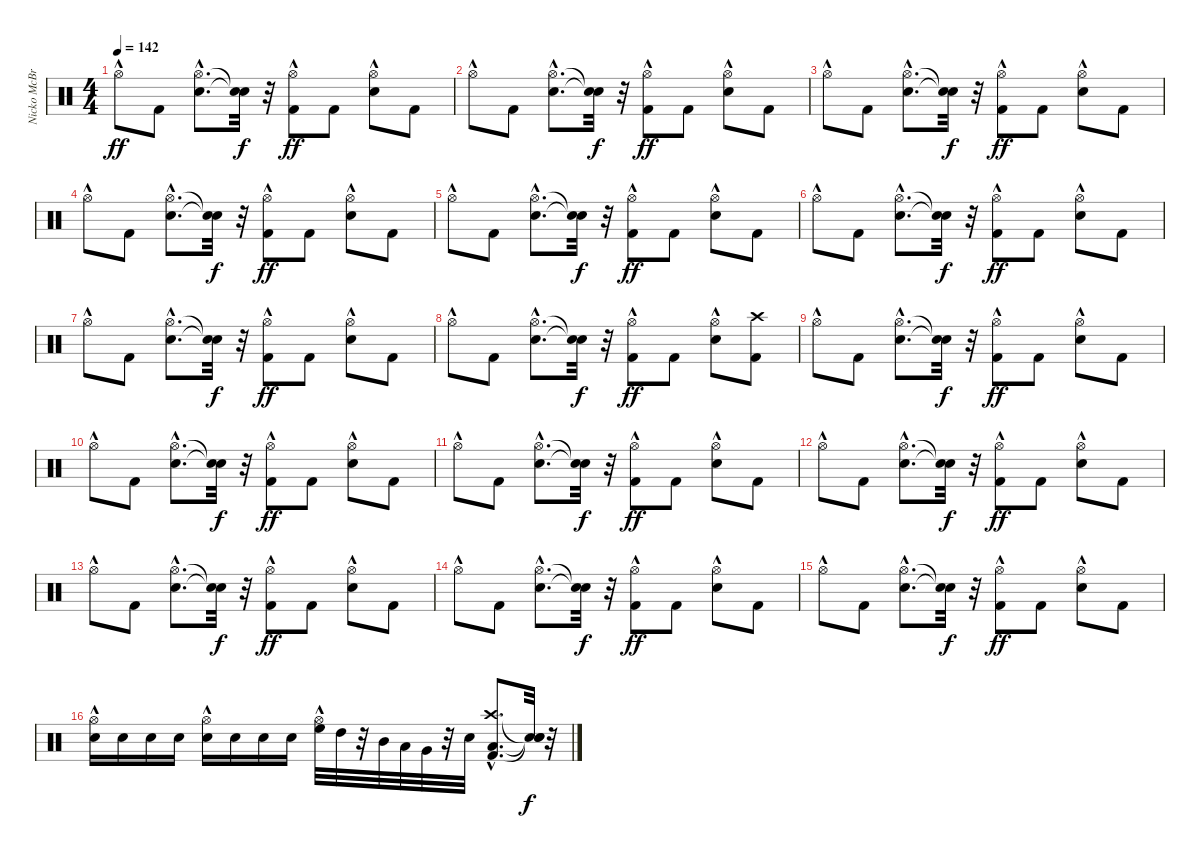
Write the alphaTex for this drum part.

\track ("Nicko McBrain" "Nicko McBr") {instrument percussion}
\staff {score}
\articulation defaults
\ts (4 4)
\tempo 142
\clef neutral
\ks c "Hi-Hat (open)"{hac}.8{dy ff} "Kick (hit) 2".8
("Snare (hit) 2"{hac} "Hi-Hat (open)"{hac}).8{d} ("Snare (hit)"{t} "Snare (hit)"{t}).32{dy f} r.32 ("Kick (hit) 2" "Hi-Hat (open)"{hac}).8{dy ff} "Kick (hit) 2".8 ("Snare (hit) 2" "Hi-Hat (open)"{hac}).8 "Kick (hit) 2".8 |
"Hi-Hat (open)"{hac}.8 "Kick (hit) 2".8 ("Snare (hit) 2"{hac} "Hi-Hat (open)"{hac}).8{d} ("Snare (hit)"{t} "Snare (hit)"{t}).32{dy f} r.32 ("Kick (hit) 2" "Hi-Hat (open)"{hac}).8{dy ff} "Kick (hit) 2".8 ("Snare (hit) 2" "Hi-Hat (open)"{hac}).8 "Kick (hit) 2".8 |
"Hi-Hat (open)"{hac}.8 "Kick (hit) 2".8 ("Snare (hit) 2"{hac} "Hi-Hat (open)"{hac}).8{d} ("Snare (hit)"{t} "Snare (hit)"{t}).32{dy f} r.32 ("Kick (hit) 2" "Hi-Hat (open)"{hac}).8{dy ff} "Kick (hit) 2".8 ("Snare (hit) 2" "Hi-Hat (open)"{hac}).8 "Kick (hit) 2".8 |
"Hi-Hat (open)"{hac}.8 "Kick (hit) 2".8 ("Snare (hit) 2"{hac} "Hi-Hat (open)"{hac}).8{d} ("Snare (hit)"{t} "Snare (hit)"{t}).32{dy f} r.32 ("Kick (hit) 2" "Hi-Hat (open)"{hac}).8{dy ff} "Kick (hit) 2".8 ("Snare (hit) 2" "Hi-Hat (open)"{hac}).8 "Kick (hit) 2".8 |
"Hi-Hat (open)"{hac}.8 "Kick (hit) 2".8 ("Snare (hit) 2"{hac} "Hi-Hat (open)"{hac}).8{d} ("Snare (hit)"{t} "Snare (hit)"{t}).32{dy f} r.32 ("Kick (hit) 2" "Hi-Hat (open)"{hac}).8{dy ff} "Kick (hit) 2".8 ("Snare (hit) 2" "Hi-Hat (open)"{hac}).8 "Kick (hit) 2".8 |
"Hi-Hat (open)"{hac}.8 "Kick (hit) 2".8 ("Snare (hit) 2"{hac} "Hi-Hat (open)"{hac}).8{d} ("Snare (hit)"{t} "Snare (hit)"{t}).32{dy f} r.32 ("Kick (hit) 2" "Hi-Hat (open)"{hac}).8{dy ff} "Kick (hit) 2".8 ("Snare (hit) 2" "Hi-Hat (open)"{hac}).8 "Kick (hit) 2".8 |
"Hi-Hat (open)"{hac}.8 "Kick (hit) 2".8 ("Snare (hit) 2"{hac} "Hi-Hat (open)"{hac}).8{d} ("Snare (hit)"{t} "Snare (hit)"{t}).32{dy f} r.32 ("Kick (hit) 2" "Hi-Hat (open)"{hac}).8{dy ff} "Kick (hit) 2".8 ("Snare (hit) 2" "Hi-Hat (open)"{hac}).8 "Kick (hit) 2".8 |
"Hi-Hat (open)"{hac}.8 "Kick (hit) 2".8 ("Snare (hit) 2"{hac} "Hi-Hat (open)"{hac}).8{d} ("Snare (hit)"{t} "Snare (hit)"{t}).32{dy f} r.32 ("Kick (hit) 2" "Hi-Hat (open)"{hac}).8{dy ff} "Kick (hit) 2".8 ("Snare (hit) 2" "Hi-Hat (open)"{hac}).8 ("Kick (hit) 2" "Crash high (hit)").8 |
"Hi-Hat (open)"{hac}.8 "Kick (hit) 2".8 ("Snare (hit) 2"{hac} "Hi-Hat (open)"{hac}).8{d} ("Snare (hit)"{t} "Snare (hit)"{t}).32{dy f} r.32 ("Kick (hit) 2" "Hi-Hat (open)"{hac}).8{dy ff} "Kick (hit) 2".8 ("Snare (hit) 2" "Hi-Hat (open)"{hac}).8 "Kick (hit) 2".8 |
"Hi-Hat (open)"{hac}.8 "Kick (hit) 2".8 ("Snare (hit) 2"{hac} "Hi-Hat (open)"{hac}).8{d} ("Snare (hit)"{t} "Snare (hit)"{t}).32{dy f} r.32 ("Kick (hit) 2" "Hi-Hat (open)"{hac}).8{dy ff} "Kick (hit) 2".8 ("Snare (hit) 2" "Hi-Hat (open)"{hac}).8 "Kick (hit) 2".8 |
"Hi-Hat (open)"{hac}.8 "Kick (hit) 2".8 ("Snare (hit) 2"{hac} "Hi-Hat (open)"{hac}).8{d} ("Snare (hit)"{t} "Snare (hit)"{t}).32{dy f} r.32 ("Kick (hit) 2" "Hi-Hat (open)"{hac}).8{dy ff} "Kick (hit) 2".8 ("Snare (hit) 2" "Hi-Hat (open)"{hac}).8 "Kick (hit) 2".8 |
"Hi-Hat (open)"{hac}.8 "Kick (hit) 2".8 ("Snare (hit) 2"{hac} "Hi-Hat (open)"{hac}).8{d} ("Snare (hit)"{t} "Snare (hit)"{t}).32{dy f} r.32 ("Kick (hit) 2" "Hi-Hat (open)"{hac}).8{dy ff} "Kick (hit) 2".8 ("Snare (hit) 2" "Hi-Hat (open)"{hac}).8 "Kick (hit) 2".8 |
"Hi-Hat (open)"{hac}.8 "Kick (hit) 2".8 ("Snare (hit) 2"{hac} "Hi-Hat (open)"{hac}).8{d} ("Snare (hit)"{t} "Snare (hit)"{t}).32{dy f} r.32 ("Kick (hit) 2" "Hi-Hat (open)"{hac}).8{dy ff} "Kick (hit) 2".8 ("Snare (hit) 2" "Hi-Hat (open)"{hac}).8 "Kick (hit) 2".8 |
"Hi-Hat (open)"{hac}.8 "Kick (hit) 2".8 ("Snare (hit) 2"{hac} "Hi-Hat (open)"{hac}).8{d} ("Snare (hit)"{t} "Snare (hit)"{t}).32{dy f} r.32 ("Kick (hit) 2" "Hi-Hat (open)"{hac}).8{dy ff} "Kick (hit) 2".8 ("Snare (hit) 2" "Hi-Hat (open)"{hac}).8 "Kick (hit) 2".8 |
"Hi-Hat (open)"{hac}.8 "Kick (hit) 2".8 ("Snare (hit) 2"{hac} "Hi-Hat (open)"{hac}).8{d} ("Snare (hit)"{t} "Snare (hit)"{t}).32{dy f} r.32 ("Kick (hit) 2" "Hi-Hat (open)"{hac}).8{dy ff} "Kick (hit) 2".8 ("Snare (hit) 2" "Hi-Hat (open)"{hac}).8 "Kick (hit) 2".8 |
("Snare (hit) 2" "Hi-Hat (open)"{hac}).16 "Snare (hit) 2".16 "Snare (hit) 2".16 "Snare (hit) 2".16 ("Snare (hit) 2" "Hi-Hat (open)"{hac}).16 "Snare (hit) 2".16 "Snare (hit) 2".16 "Snare (hit) 2".16 ("Hi-Hat (open)"{hac} "High Floor Tom (hit)").32 "High Tom (hit)".32 r.32 "Mid Tom (hit)".32 "Low Tom (hit)".32 "Very Low Tom (hit)".32 r.32 "Electric Snare (hit)".32 ("Kick (hit) 2"{hac} "Low Tom (hit)"{hac} "Crash high (hit)"{hac}).8{d} ("Snare (hit)"{t} "Snare (hit)"{t} "Snare (hit)"{t}).32{dy f} r.32
